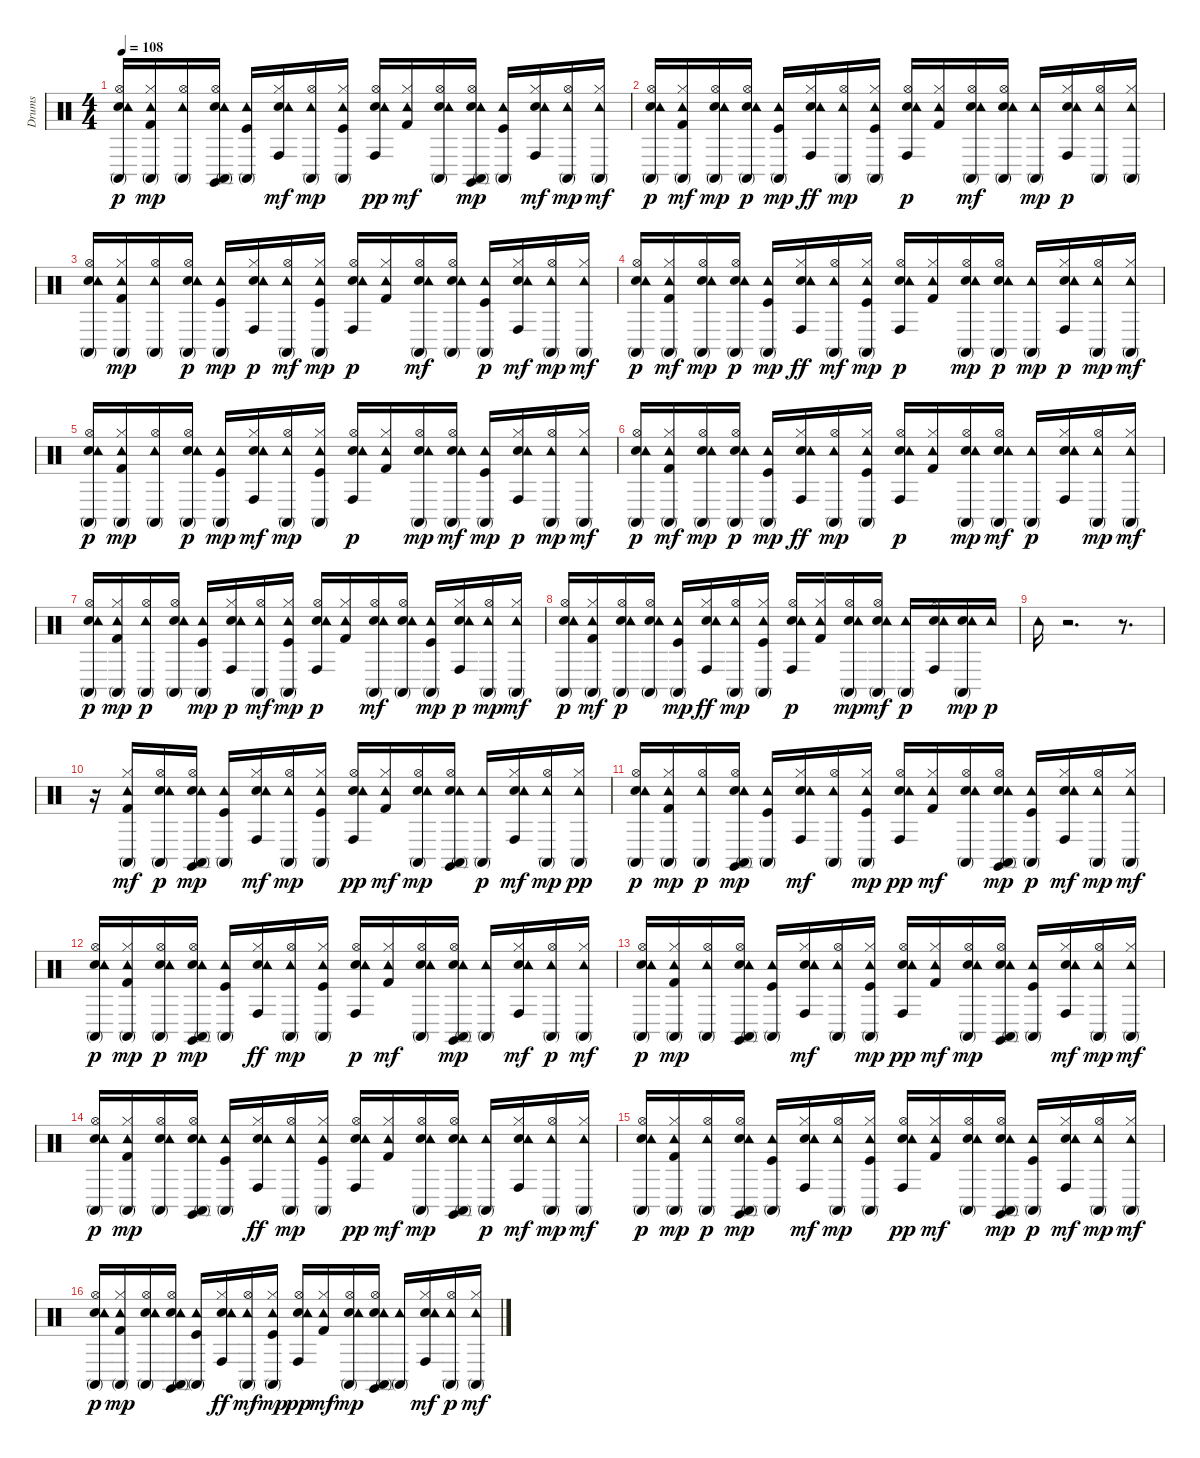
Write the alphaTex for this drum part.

\track ("Drums" "Drums") {instrument percussion}
\staff {score}
\articulation defaults
\ts (4 4)
\tempo 108
\clef neutral
\ks c
("Snare (hit) 2" "Hi-Hat (open)" "Tambourine (hit)" "Conga high (mute)").16{dy p} ("Kick (hit) 2" "Hi-Hat (closed)" "Tambourine (hit)" "Conga high (mute)").16{dy mp} ("Hi-Hat (open)" "Tambourine (hit)" "Conga high (mute)").16 ("Snare (hit) 2" "Hi-Hat (open)" "Tambourine (hit)" "Conga high (mute)" "Claves (hit)").16 ("Kick (hit)" "Tambourine (hit)" "Conga high (mute)").16 ("Snare (hit) 2" "Hi-Hat (closed)" "Tambourine (hit)" "Conga high (hit)").16{dy mf} ("Hi-Hat (open)" "Tambourine (hit)" "Conga high (mute)").16{dy mp} ("Kick (hit)" "Hi-Hat (closed)" "Tambourine (hit)" "Conga high (mute)").16 ("Snare (hit) 2" "Hi-Hat (open)" "Tambourine (hit)" "Conga high (hit)").16{dy pp} ("Kick (hit) 2" "Hi-Hat (closed)" "Tambourine (hit)").16{dy mf} ("Snare (hit) 2" "Hi-Hat (open)" "Tambourine (hit)" "Conga high (mute)").16 ("Snare (hit) 2" "Hi-Hat (open)" "Tambourine (hit)" "Conga high (mute)" "Claves (hit)").16{dy mp} ("Kick (hit)" "Tambourine (hit)" "Conga high (mute)").16 ("Snare (hit) 2" "Hi-Hat (closed)" "Tambourine (hit)" "Conga high (hit)").16{dy mf} ("Hi-Hat (open)" "Tambourine (hit)" "Conga high (mute)").16{dy mp} ("Hi-Hat (closed)" "Tambourine (hit)" "Conga high (mute)").16{dy mf} |
("Snare (hit) 2" "Hi-Hat (open)" "Tambourine (hit)" "Conga high (mute)").16{dy p} ("Kick (hit) 2" "Hi-Hat (closed)" "Tambourine (hit)" "Conga high (mute)").16{dy mf} ("Snare (hit) 2" "Hi-Hat (open)" "Tambourine (hit)" "Conga high (mute)").16{dy mp} ("Snare (hit) 2" "Hi-Hat (open)" "Tambourine (hit)" "Conga high (mute)").16{dy p} ("Kick (hit)" "Tambourine (hit)" "Conga high (mute)").16{dy mp} ("Snare (hit) 2" "Hi-Hat (closed)" "Tambourine (hit)" "Conga high (hit)").16{dy ff} ("Hi-Hat (open)" "Tambourine (hit)" "Conga high (mute)").16{dy mp} ("Kick (hit)" "Hi-Hat (closed)" "Tambourine (hit)" "Conga high (mute)").16 ("Snare (hit) 2" "Hi-Hat (open)" "Tambourine (hit)" "Conga high (hit)").16{dy p} ("Kick (hit) 2" "Hi-Hat (closed)" "Tambourine (hit)").16 ("Snare (hit) 2" "Hi-Hat (open)" "Tambourine (hit)" "Conga high (mute)").16{dy mf} ("Snare (hit) 2" "Hi-Hat (open)" "Tambourine (hit)" "Conga high (mute)").16 ("Tambourine (hit)" "Conga high (mute)").16{dy mp} ("Snare (hit) 2" "Hi-Hat (closed)" "Tambourine (hit)" "Conga high (hit)").16{dy p} ("Hi-Hat (open)" "Tambourine (hit)" "Conga high (mute)").16 ("Hi-Hat (closed)" "Tambourine (hit)" "Conga high (mute)").16 |
("Snare (hit) 2" "Hi-Hat (open)" "Tambourine (hit)" "Conga high (mute)").16 ("Kick (hit) 2" "Hi-Hat (closed)" "Tambourine (hit)" "Conga high (mute)").16{dy mp} ("Hi-Hat (open)" "Tambourine (hit)" "Conga high (mute)").16 ("Snare (hit) 2" "Hi-Hat (open)" "Tambourine (hit)" "Conga high (mute)").16{dy p} ("Kick (hit)" "Tambourine (hit)" "Conga high (mute)").16{dy mp} ("Snare (hit) 2" "Hi-Hat (closed)" "Tambourine (hit)" "Conga high (hit)").16{dy p} ("Hi-Hat (open)" "Tambourine (hit)" "Conga high (mute)").16{dy mf} ("Kick (hit)" "Hi-Hat (closed)" "Tambourine (hit)" "Conga high (mute)").16{dy mp} ("Snare (hit) 2" "Hi-Hat (open)" "Tambourine (hit)" "Conga high (hit)").16{dy p} ("Kick (hit) 2" "Hi-Hat (closed)" "Tambourine (hit)").16 ("Snare (hit) 2" "Hi-Hat (open)" "Tambourine (hit)" "Conga high (mute)").16{dy mf} ("Snare (hit) 2" "Hi-Hat (open)" "Tambourine (hit)" "Conga high (mute)").16 ("Kick (hit)" "Tambourine (hit)" "Conga high (mute)").16{dy p} ("Snare (hit) 2" "Hi-Hat (closed)" "Tambourine (hit)" "Conga high (hit)").16{dy mf} ("Hi-Hat (open)" "Tambourine (hit)" "Conga high (mute)").16{dy mp} ("Hi-Hat (closed)" "Tambourine (hit)" "Conga high (mute)").16{dy mf} |
("Snare (hit) 2" "Hi-Hat (open)" "Tambourine (hit)" "Conga high (mute)").16{dy p} ("Kick (hit) 2" "Hi-Hat (closed)" "Tambourine (hit)" "Conga high (mute)").16{dy mf} ("Snare (hit) 2" "Hi-Hat (open)" "Tambourine (hit)" "Conga high (mute)").16{dy mp} ("Snare (hit) 2" "Hi-Hat (open)" "Tambourine (hit)" "Conga high (mute)").16{dy p} ("Kick (hit)" "Tambourine (hit)" "Conga high (mute)").16{dy mp} ("Snare (hit) 2" "Hi-Hat (closed)" "Tambourine (hit)" "Conga high (hit)").16{dy ff} ("Hi-Hat (open)" "Tambourine (hit)" "Conga high (mute)").16{dy mf} ("Kick (hit)" "Hi-Hat (closed)" "Tambourine (hit)" "Conga high (mute)").16{dy mp} ("Snare (hit) 2" "Hi-Hat (open)" "Tambourine (hit)" "Conga high (hit)").16{dy p} ("Kick (hit) 2" "Hi-Hat (closed)" "Tambourine (hit)").16 ("Snare (hit) 2" "Hi-Hat (open)" "Tambourine (hit)" "Conga high (mute)").16{dy mp} ("Snare (hit) 2" "Hi-Hat (open)" "Tambourine (hit)" "Conga high (mute)").16{dy p} ("Tambourine (hit)" "Conga high (mute)").16{dy mp} ("Snare (hit) 2" "Hi-Hat (closed)" "Tambourine (hit)" "Conga high (hit)").16{dy p} ("Hi-Hat (open)" "Tambourine (hit)" "Conga high (mute)").16{dy mp} ("Hi-Hat (closed)" "Tambourine (hit)" "Conga high (mute)").16{dy mf} |
("Snare (hit) 2" "Hi-Hat (open)" "Tambourine (hit)" "Conga high (mute)").16{dy p} ("Kick (hit) 2" "Hi-Hat (closed)" "Tambourine (hit)" "Conga high (mute)").16{dy mp} ("Hi-Hat (open)" "Tambourine (hit)" "Conga high (mute)").16 ("Snare (hit) 2" "Hi-Hat (open)" "Tambourine (hit)" "Conga high (mute)").16{dy p} ("Kick (hit)" "Tambourine (hit)" "Conga high (mute)").16{dy mp} ("Snare (hit) 2" "Hi-Hat (closed)" "Tambourine (hit)" "Conga high (hit)").16{dy mf} ("Hi-Hat (open)" "Tambourine (hit)" "Conga high (mute)").16{dy mp} ("Kick (hit)" "Hi-Hat (closed)" "Tambourine (hit)" "Conga high (mute)").16 ("Snare (hit) 2" "Hi-Hat (open)" "Tambourine (hit)" "Conga high (hit)").16{dy p} ("Kick (hit) 2" "Hi-Hat (closed)" "Tambourine (hit)").16 ("Snare (hit) 2" "Hi-Hat (open)" "Tambourine (hit)" "Conga high (mute)").16{dy mp} ("Snare (hit) 2" "Hi-Hat (open)" "Tambourine (hit)" "Conga high (mute)").16{dy mf} ("Kick (hit)" "Tambourine (hit)" "Conga high (mute)").16{dy mp} ("Snare (hit) 2" "Hi-Hat (closed)" "Tambourine (hit)" "Conga high (hit)").16{dy p} ("Hi-Hat (open)" "Tambourine (hit)" "Conga high (mute)").16{dy mp} ("Hi-Hat (closed)" "Tambourine (hit)" "Conga high (mute)").16{dy mf} |
("Snare (hit) 2" "Hi-Hat (open)" "Tambourine (hit)" "Conga high (mute)").16{dy p} ("Kick (hit) 2" "Hi-Hat (closed)" "Tambourine (hit)" "Conga high (mute)").16{dy mf} ("Snare (hit) 2" "Hi-Hat (open)" "Tambourine (hit)" "Conga high (mute)").16{dy mp} ("Snare (hit) 2" "Hi-Hat (open)" "Tambourine (hit)" "Conga high (mute)").16{dy p} ("Kick (hit)" "Tambourine (hit)" "Conga high (mute)").16{dy mp} ("Snare (hit) 2" "Hi-Hat (closed)" "Tambourine (hit)" "Conga high (hit)").16{dy ff} ("Hi-Hat (open)" "Tambourine (hit)" "Conga high (mute)").16{dy mp} ("Kick (hit)" "Hi-Hat (closed)" "Tambourine (hit)" "Conga high (mute)").16 ("Snare (hit) 2" "Hi-Hat (open)" "Tambourine (hit)" "Conga high (hit)").16{dy p} ("Kick (hit) 2" "Hi-Hat (closed)" "Tambourine (hit)").16 ("Snare (hit) 2" "Hi-Hat (open)" "Tambourine (hit)" "Conga high (mute)").16{dy mp} ("Snare (hit) 2" "Hi-Hat (open)" "Tambourine (hit)" "Conga high (mute)").16{dy mf} ("Tambourine (hit)" "Conga high (mute)").16{dy p} ("Snare (hit) 2" "Hi-Hat (closed)" "Tambourine (hit)" "Conga high (hit)").16 ("Hi-Hat (open)" "Tambourine (hit)" "Conga high (mute)").16{dy mp} ("Hi-Hat (closed)" "Tambourine (hit)" "Conga high (mute)").16{dy mf} |
("Snare (hit) 2" "Hi-Hat (open)" "Tambourine (hit)" "Conga high (mute)").16{dy p} ("Kick (hit) 2" "Hi-Hat (closed)" "Tambourine (hit)" "Conga high (mute)").16{dy mp} ("Hi-Hat (open)" "Tambourine (hit)" "Conga high (mute)").16{dy p} ("Snare (hit) 2" "Hi-Hat (open)" "Tambourine (hit)" "Conga high (mute)").16 ("Kick (hit)" "Tambourine (hit)" "Conga high (mute)").16{dy mp} ("Snare (hit) 2" "Hi-Hat (closed)" "Tambourine (hit)" "Conga high (hit)").16{dy p} ("Hi-Hat (open)" "Tambourine (hit)" "Conga high (mute)").16{dy mf} ("Kick (hit)" "Hi-Hat (closed)" "Tambourine (hit)" "Conga high (mute)").16{dy mp} ("Snare (hit) 2" "Hi-Hat (open)" "Tambourine (hit)" "Conga high (hit)").16{dy p} ("Kick (hit) 2" "Hi-Hat (closed)" "Tambourine (hit)").16 ("Snare (hit) 2" "Hi-Hat (open)" "Tambourine (hit)" "Conga high (mute)").16{dy mf} ("Snare (hit) 2" "Hi-Hat (open)" "Tambourine (hit)" "Conga high (mute)").16 ("Kick (hit)" "Tambourine (hit)" "Conga high (mute)").16{dy mp} ("Snare (hit) 2" "Hi-Hat (closed)" "Tambourine (hit)" "Conga high (hit)").16{dy p} ("Hi-Hat (open)" "Tambourine (hit)" "Conga high (mute)").16{dy mp} ("Hi-Hat (closed)" "Tambourine (hit)" "Conga high (mute)").16{dy mf} |
("Snare (hit) 2" "Hi-Hat (open)" "Tambourine (hit)" "Conga high (mute)").16{dy p} ("Kick (hit) 2" "Hi-Hat (closed)" "Tambourine (hit)" "Conga high (mute)").16{dy mf} ("Snare (hit) 2" "Hi-Hat (open)" "Tambourine (hit)" "Conga high (mute)").16{dy p} ("Snare (hit) 2" "Hi-Hat (open)" "Tambourine (hit)" "Conga high (mute)").16 ("Kick (hit)" "Tambourine (hit)" "Conga high (mute)").16{dy mp} ("Snare (hit) 2" "Hi-Hat (closed)" "Tambourine (hit)" "Conga high (hit)").16{dy ff} ("Hi-Hat (open)" "Tambourine (hit)" "Conga high (mute)").16{dy mp} ("Kick (hit)" "Hi-Hat (closed)" "Tambourine (hit)" "Conga high (mute)").16 ("Snare (hit) 2" "Hi-Hat (open)" "Tambourine (hit)" "Conga high (hit)").16{dy p} ("Kick (hit) 2" "Hi-Hat (closed)" "Tambourine (hit)").16 ("Snare (hit) 2" "Hi-Hat (open)" "Tambourine (hit)" "Conga high (mute)").16{dy mp} ("Snare (hit) 2" "Hi-Hat (open)" "Tambourine (hit)" "Conga high (mute)").16{dy mf} ("Tambourine (hit)" "Conga high (mute)").16{dy p} ("Snare (hit) 2" "Hi-Hat (closed)" "Tambourine (hit)" "Conga high (hit)").16 ("Snare (hit) 2" "Tambourine (hit)" "Conga high (mute)").16{dy mp} "Tambourine (hit)".16{dy p} |
"Tambourine (hit)".16 r.2{d} r.8{d} |
r.16 ("Kick (hit) 2" "Hi-Hat (closed)" "Tambourine (hit)" "Conga high (mute)").16{dy mf} ("Snare (hit) 2" "Hi-Hat (open)" "Tambourine (hit)" "Conga high (mute)").16{dy p} ("Snare (hit) 2" "Hi-Hat (open)" "Tambourine (hit)" "Conga high (mute)" "Claves (hit)").16{dy mp} ("Kick (hit)" "Tambourine (hit)" "Conga high (mute)").16 ("Snare (hit) 2" "Hi-Hat (closed)" "Tambourine (hit)" "Conga high (hit)").16{dy mf} ("Hi-Hat (open)" "Tambourine (hit)" "Conga high (mute)").16{dy mp} ("Kick (hit)" "Hi-Hat (closed)" "Tambourine (hit)" "Conga high (mute)").16 ("Snare (hit) 2" "Hi-Hat (open)" "Tambourine (hit)" "Conga high (hit)").16{dy pp} ("Kick (hit) 2" "Hi-Hat (closed)" "Tambourine (hit)").16{dy mf} ("Snare (hit) 2" "Hi-Hat (open)" "Tambourine (hit)" "Conga high (mute)").16{dy mp} ("Snare (hit) 2" "Hi-Hat (open)" "Tambourine (hit)" "Conga high (mute)" "Claves (hit)").16 ("Tambourine (hit)" "Conga high (mute)").16{dy p} ("Snare (hit) 2" "Hi-Hat (closed)" "Tambourine (hit)" "Conga high (hit)").16{dy mf} ("Hi-Hat (open)" "Tambourine (hit)" "Conga high (mute)").16{dy mp} ("Hi-Hat (closed)" "Tambourine (hit)" "Conga high (mute)").16{dy pp} |
("Snare (hit) 2" "Hi-Hat (open)" "Tambourine (hit)" "Conga high (mute)").16{dy p} ("Kick (hit) 2" "Hi-Hat (closed)" "Tambourine (hit)" "Conga high (mute)").16{dy mp} ("Hi-Hat (open)" "Tambourine (hit)" "Conga high (mute)").16{dy p} ("Snare (hit) 2" "Hi-Hat (open)" "Tambourine (hit)" "Conga high (mute)" "Claves (hit)").16{dy mp} ("Kick (hit)" "Tambourine (hit)" "Conga high (mute)").16 ("Snare (hit) 2" "Hi-Hat (closed)" "Tambourine (hit)" "Conga high (hit)").16{dy mf} ("Hi-Hat (open)" "Tambourine (hit)" "Conga high (mute)").16 ("Kick (hit)" "Hi-Hat (closed)" "Tambourine (hit)" "Conga high (mute)").16{dy mp} ("Snare (hit) 2" "Hi-Hat (open)" "Tambourine (hit)" "Conga high (hit)").16{dy pp} ("Kick (hit) 2" "Hi-Hat (closed)" "Tambourine (hit)").16{dy mf} ("Snare (hit) 2" "Hi-Hat (open)" "Tambourine (hit)" "Conga high (mute)").16 ("Snare (hit) 2" "Hi-Hat (open)" "Tambourine (hit)" "Conga high (mute)" "Claves (hit)").16{dy mp} ("Kick (hit)" "Tambourine (hit)" "Conga high (mute)").16{dy p} ("Snare (hit) 2" "Hi-Hat (closed)" "Tambourine (hit)" "Conga high (hit)").16{dy mf} ("Hi-Hat (open)" "Tambourine (hit)" "Conga high (mute)").16{dy mp} ("Hi-Hat (closed)" "Tambourine (hit)" "Conga high (mute)").16{dy mf} |
("Snare (hit) 2" "Hi-Hat (open)" "Tambourine (hit)" "Conga high (mute)").16{dy p} ("Kick (hit) 2" "Hi-Hat (closed)" "Tambourine (hit)" "Conga high (mute)").16{dy mp} ("Snare (hit) 2" "Hi-Hat (open)" "Tambourine (hit)" "Conga high (mute)").16{dy p} ("Snare (hit) 2" "Hi-Hat (open)" "Tambourine (hit)" "Conga high (mute)" "Claves (hit)").16{dy mp} ("Kick (hit)" "Tambourine (hit)" "Conga high (mute)").16 ("Snare (hit) 2" "Hi-Hat (closed)" "Tambourine (hit)" "Conga high (hit)").16{dy ff} ("Hi-Hat (open)" "Tambourine (hit)" "Conga high (mute)").16{dy mp} ("Kick (hit)" "Hi-Hat (closed)" "Tambourine (hit)" "Conga high (mute)").16 ("Snare (hit) 2" "Hi-Hat (open)" "Tambourine (hit)" "Conga high (hit)").16{dy p} ("Kick (hit) 2" "Hi-Hat (closed)" "Tambourine (hit)").16{dy mf} ("Snare (hit) 2" "Hi-Hat (open)" "Tambourine (hit)" "Conga high (mute)").16 ("Snare (hit) 2" "Hi-Hat (open)" "Tambourine (hit)" "Conga high (mute)" "Claves (hit)").16{dy mp} ("Tambourine (hit)" "Conga high (mute)").16 ("Snare (hit) 2" "Hi-Hat (closed)" "Tambourine (hit)" "Conga high (hit)").16{dy mf} ("Hi-Hat (open)" "Tambourine (hit)" "Conga high (mute)").16{dy p} ("Hi-Hat (closed)" "Tambourine (hit)" "Conga high (mute)").16{dy mf} |
("Snare (hit) 2" "Hi-Hat (open)" "Tambourine (hit)" "Conga high (mute)").16{dy p} ("Kick (hit) 2" "Hi-Hat (closed)" "Tambourine (hit)" "Conga high (mute)").16{dy mp} ("Hi-Hat (open)" "Tambourine (hit)" "Conga high (mute)").16 ("Snare (hit) 2" "Hi-Hat (open)" "Tambourine (hit)" "Conga high (mute)" "Claves (hit)").16 ("Kick (hit)" "Tambourine (hit)" "Conga high (mute)").16 ("Snare (hit) 2" "Hi-Hat (closed)" "Tambourine (hit)" "Conga high (hit)").16{dy mf} ("Hi-Hat (open)" "Tambourine (hit)" "Conga high (mute)").16 ("Kick (hit)" "Hi-Hat (closed)" "Tambourine (hit)" "Conga high (mute)").16{dy mp} ("Snare (hit) 2" "Hi-Hat (open)" "Tambourine (hit)" "Conga high (hit)").16{dy pp} ("Kick (hit) 2" "Hi-Hat (closed)" "Tambourine (hit)").16{dy mf} ("Snare (hit) 2" "Hi-Hat (open)" "Tambourine (hit)" "Conga high (mute)").16{dy mp} ("Snare (hit) 2" "Hi-Hat (open)" "Tambourine (hit)" "Conga high (mute)" "Claves (hit)").16 ("Kick (hit)" "Tambourine (hit)" "Conga high (mute)").16 ("Snare (hit) 2" "Hi-Hat (closed)" "Tambourine (hit)" "Conga high (hit)").16{dy mf} ("Hi-Hat (open)" "Tambourine (hit)" "Conga high (mute)").16{dy mp} ("Hi-Hat (closed)" "Tambourine (hit)" "Conga high (mute)").16{dy mf} |
("Snare (hit) 2" "Hi-Hat (open)" "Tambourine (hit)" "Conga high (mute)").16{dy p} ("Kick (hit) 2" "Hi-Hat (closed)" "Tambourine (hit)" "Conga high (mute)").16{dy mp} ("Snare (hit) 2" "Hi-Hat (open)" "Tambourine (hit)" "Conga high (mute)").16 ("Snare (hit) 2" "Hi-Hat (open)" "Tambourine (hit)" "Conga high (mute)" "Claves (hit)").16 ("Kick (hit)" "Tambourine (hit)" "Conga high (mute)").16 ("Snare (hit) 2" "Hi-Hat (closed)" "Tambourine (hit)" "Conga high (hit)").16{dy ff} ("Hi-Hat (open)" "Tambourine (hit)" "Conga high (mute)").16{dy mp} ("Kick (hit)" "Hi-Hat (closed)" "Tambourine (hit)" "Conga high (mute)").16 ("Snare (hit) 2" "Hi-Hat (open)" "Tambourine (hit)" "Conga high (hit)").16{dy pp} ("Kick (hit) 2" "Hi-Hat (closed)" "Tambourine (hit)").16{dy mf} ("Snare (hit) 2" "Hi-Hat (open)" "Tambourine (hit)" "Conga high (mute)").16{dy mp} ("Snare (hit) 2" "Hi-Hat (open)" "Tambourine (hit)" "Conga high (mute)" "Claves (hit)").16 ("Tambourine (hit)" "Conga high (mute)").16{dy p} ("Snare (hit) 2" "Hi-Hat (closed)" "Tambourine (hit)" "Conga high (hit)").16{dy mf} ("Hi-Hat (open)" "Tambourine (hit)" "Conga high (mute)").16{dy mp} ("Hi-Hat (closed)" "Tambourine (hit)" "Conga high (mute)").16{dy mf} |
("Snare (hit) 2" "Hi-Hat (open)" "Tambourine (hit)" "Conga high (mute)").16{dy p} ("Kick (hit) 2" "Hi-Hat (closed)" "Tambourine (hit)" "Conga high (mute)").16{dy mp} ("Hi-Hat (open)" "Tambourine (hit)" "Conga high (mute)").16{dy p} ("Snare (hit) 2" "Hi-Hat (open)" "Tambourine (hit)" "Conga high (mute)" "Claves (hit)").16{dy mp} ("Kick (hit)" "Tambourine (hit)" "Conga high (mute)").16 ("Snare (hit) 2" "Hi-Hat (closed)" "Tambourine (hit)" "Conga high (hit)").16{dy mf} ("Hi-Hat (open)" "Tambourine (hit)" "Conga high (mute)").16{dy mp} ("Kick (hit)" "Hi-Hat (closed)" "Tambourine (hit)" "Conga high (mute)").16 ("Snare (hit) 2" "Hi-Hat (open)" "Tambourine (hit)" "Conga high (hit)").16{dy pp} ("Kick (hit) 2" "Hi-Hat (closed)" "Tambourine (hit)").16{dy mf} ("Snare (hit) 2" "Hi-Hat (open)" "Tambourine (hit)" "Conga high (mute)").16 ("Snare (hit) 2" "Hi-Hat (open)" "Tambourine (hit)" "Conga high (mute)" "Claves (hit)").16{dy mp} ("Kick (hit)" "Tambourine (hit)" "Conga high (mute)").16{dy p} ("Snare (hit) 2" "Hi-Hat (closed)" "Tambourine (hit)" "Conga high (hit)").16{dy mf} ("Hi-Hat (open)" "Tambourine (hit)" "Conga high (mute)").16{dy mp} ("Hi-Hat (closed)" "Tambourine (hit)" "Conga high (mute)").16{dy mf} |
("Snare (hit) 2" "Hi-Hat (open)" "Tambourine (hit)" "Conga high (mute)").16{dy p} ("Kick (hit) 2" "Hi-Hat (closed)" "Tambourine (hit)" "Conga high (mute)").16{dy mp} ("Snare (hit) 2" "Hi-Hat (open)" "Tambourine (hit)" "Conga high (mute)").16 ("Snare (hit) 2" "Hi-Hat (open)" "Tambourine (hit)" "Conga high (mute)" "Claves (hit)").16 ("Kick (hit)" "Tambourine (hit)" "Conga high (mute)").16 ("Snare (hit) 2" "Hi-Hat (closed)" "Tambourine (hit)" "Conga high (hit)").16{dy ff} ("Hi-Hat (open)" "Tambourine (hit)" "Conga high (mute)").16{dy mf} ("Kick (hit)" "Hi-Hat (closed)" "Tambourine (hit)" "Conga high (mute)").16{dy mp} ("Snare (hit) 2" "Hi-Hat (open)" "Tambourine (hit)" "Conga high (hit)").16{dy pp} ("Kick (hit) 2" "Hi-Hat (closed)" "Tambourine (hit)").16{dy mf} ("Snare (hit) 2" "Hi-Hat (open)" "Tambourine (hit)" "Conga high (mute)").16{dy mp} ("Snare (hit) 2" "Hi-Hat (open)" "Tambourine (hit)" "Conga high (mute)" "Claves (hit)").16 ("Tambourine (hit)" "Conga high (mute)").16 ("Snare (hit) 2" "Hi-Hat (closed)" "Tambourine (hit)" "Conga high (hit)").16{dy mf} ("Hi-Hat (open)" "Tambourine (hit)" "Conga high (mute)").16{dy p} ("Hi-Hat (closed)" "Tambourine (hit)" "Conga high (mute)").16{dy mf}
